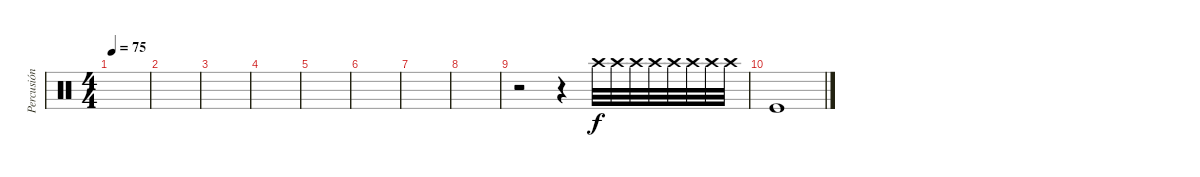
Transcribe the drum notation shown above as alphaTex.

\track ("Percusión" "Percusión") {instrument percussion}
\staff {score}
\articulation defaults
\ts (4 4)
\tempo 75
\clef neutral
\ks c
|
|
|
|
|
|
|
|
r.2 r.4 "Crash high (hit)".32{volume 5} "Crash high (hit)".32{volume 5} "Crash high (hit)".32{volume 7} "Crash high (hit)".32{volume 7} "Crash high (hit)".32{volume 8} "Crash high (hit)".32{volume 9} "Crash high (hit)".32{volume 10} "Crash high (hit)".32 |
"Kick (hit)".1
